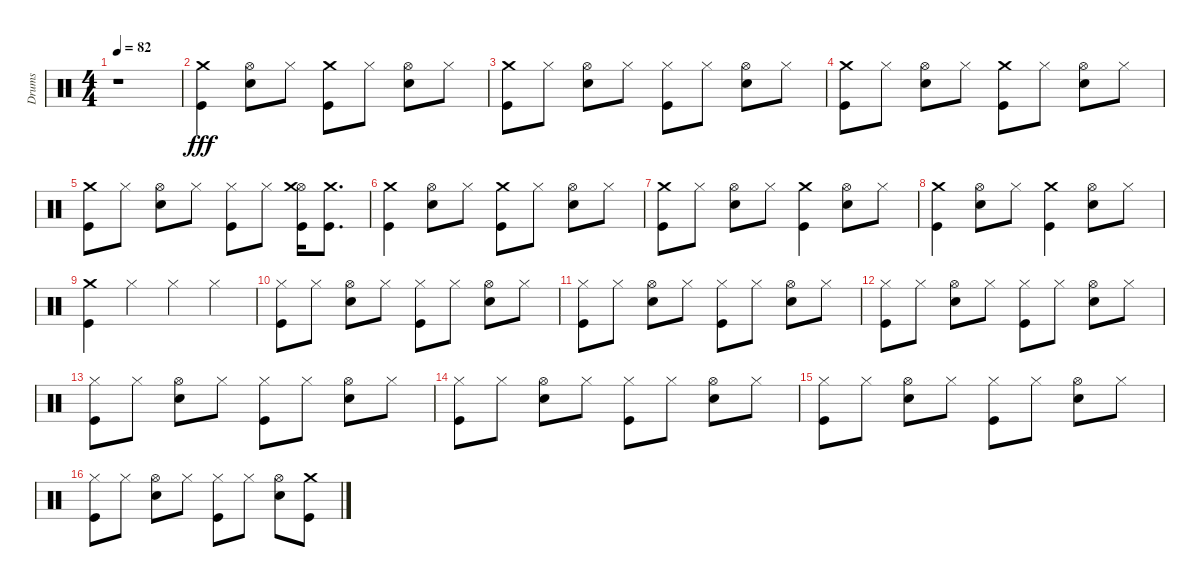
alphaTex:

\track ("Drums" "Drums") {instrument percussion}
\staff {score}
\articulation defaults
\ts (4 4)
\tempo 82
\clef neutral
\ks c
r.1{dy fff} |
("Crash medium (hit)" "Kick (hit)").4 ("Hi-Hat (open)" "Snare (hit) 2").8 "Hi-Hat (closed)".8 ("Crash medium (hit)" "Kick (hit)").8 "Hi-Hat (closed)".8 ("Hi-Hat (open)" "Snare (hit) 2").8 "Hi-Hat (closed)".8 |
("Crash medium (hit)" "Kick (hit)").8 "Hi-Hat (closed)".8 ("Hi-Hat (open)" "Snare (hit) 2").8 "Hi-Hat (closed)".8 ("Hi-Hat (closed)" "Kick (hit)").8 "Hi-Hat (closed)".8 ("Hi-Hat (open)" "Snare (hit) 2").8 "Hi-Hat (closed)".8 |
("Crash medium (hit)" "Kick (hit)").8 "Hi-Hat (closed)".8 ("Hi-Hat (open)" "Snare (hit) 2").8 "Hi-Hat (closed)".8 ("Crash medium (hit)" "Kick (hit)").8 "Hi-Hat (closed)".8 ("Hi-Hat (open)" "Snare (hit) 2").8 "Hi-Hat (closed)".8 |
("Crash medium (hit)" "Kick (hit)").8 "Hi-Hat (closed)".8 ("Hi-Hat (open)" "Snare (hit) 2").8 "Hi-Hat (closed)".8 ("Hi-Hat (closed)" "Kick (hit)").8 "Hi-Hat (closed)".8 ("Hi-Hat (open)" "Crash medium (hit)" "Kick (hit)").16 ("Crash medium (hit)" "Kick (hit)").8{d} |
("Crash medium (hit)" "Kick (hit)").4 ("Hi-Hat (open)" "Snare (hit) 2").8 "Hi-Hat (closed)".8 ("Crash medium (hit)" "Kick (hit)").8 "Hi-Hat (closed)".8 ("Hi-Hat (open)" "Snare (hit) 2").8 "Hi-Hat (closed)".8 |
("Crash medium (hit)" "Kick (hit)").8 "Hi-Hat (closed)".8 ("Hi-Hat (open)" "Snare (hit) 2").8 "Hi-Hat (closed)".8 ("Crash medium (hit)" "Kick (hit)").4 ("Hi-Hat (open)" "Snare (hit) 2").8 "Hi-Hat (closed)".8 |
("Crash medium (hit)" "Kick (hit)").4 ("Hi-Hat (open)" "Snare (hit) 2").8 "Hi-Hat (closed)".8 ("Crash medium (hit)" "Kick (hit)").4 ("Hi-Hat (open)" "Snare (hit) 2").8 "Hi-Hat (closed)".8 |
("Crash medium (hit)" "Kick (hit)").4 "Hi-Hat (closed)".4 "Hi-Hat (closed)".4 "Hi-Hat (closed)".4 |
("Hi-Hat (closed)" "Kick (hit)").8 "Hi-Hat (closed)".8 ("Hi-Hat (open)" "Snare (hit) 2").8 "Hi-Hat (closed)".8 ("Hi-Hat (closed)" "Kick (hit)").8 "Hi-Hat (closed)".8 ("Hi-Hat (open)" "Snare (hit) 2").8 "Hi-Hat (closed)".8 |
("Hi-Hat (closed)" "Kick (hit)").8 "Hi-Hat (closed)".8 ("Hi-Hat (open)" "Snare (hit) 2").8 "Hi-Hat (closed)".8 ("Hi-Hat (closed)" "Kick (hit)").8 "Hi-Hat (closed)".8 ("Hi-Hat (open)" "Snare (hit) 2").8 "Hi-Hat (closed)".8 |
("Hi-Hat (closed)" "Kick (hit)").8 "Hi-Hat (closed)".8 ("Hi-Hat (open)" "Snare (hit) 2").8 "Hi-Hat (closed)".8 ("Hi-Hat (closed)" "Kick (hit)").8 "Hi-Hat (closed)".8 ("Hi-Hat (open)" "Snare (hit) 2").8 "Hi-Hat (closed)".8 |
("Hi-Hat (closed)" "Kick (hit)").8 "Hi-Hat (closed)".8 ("Hi-Hat (open)" "Snare (hit) 2").8 "Hi-Hat (closed)".8 ("Hi-Hat (closed)" "Kick (hit)").8 "Hi-Hat (closed)".8 ("Hi-Hat (open)" "Snare (hit) 2").8 "Hi-Hat (closed)".8 |
("Hi-Hat (closed)" "Kick (hit)").8 "Hi-Hat (closed)".8 ("Hi-Hat (open)" "Snare (hit) 2").8 "Hi-Hat (closed)".8 ("Hi-Hat (closed)" "Kick (hit)").8 "Hi-Hat (closed)".8 ("Hi-Hat (open)" "Snare (hit) 2").8 "Hi-Hat (closed)".8 |
("Hi-Hat (closed)" "Kick (hit)").8 "Hi-Hat (closed)".8 ("Hi-Hat (open)" "Snare (hit) 2").8 "Hi-Hat (closed)".8 ("Hi-Hat (closed)" "Kick (hit)").8 "Hi-Hat (closed)".8 ("Hi-Hat (open)" "Snare (hit) 2").8 "Hi-Hat (closed)".8 |
("Hi-Hat (closed)" "Kick (hit)").8 "Hi-Hat (closed)".8 ("Hi-Hat (open)" "Snare (hit) 2").8 "Hi-Hat (closed)".8 ("Hi-Hat (closed)" "Kick (hit)").8 "Hi-Hat (closed)".8 ("Hi-Hat (open)" "Snare (hit) 2").8 ("Crash medium (hit)" "Kick (hit)").8
